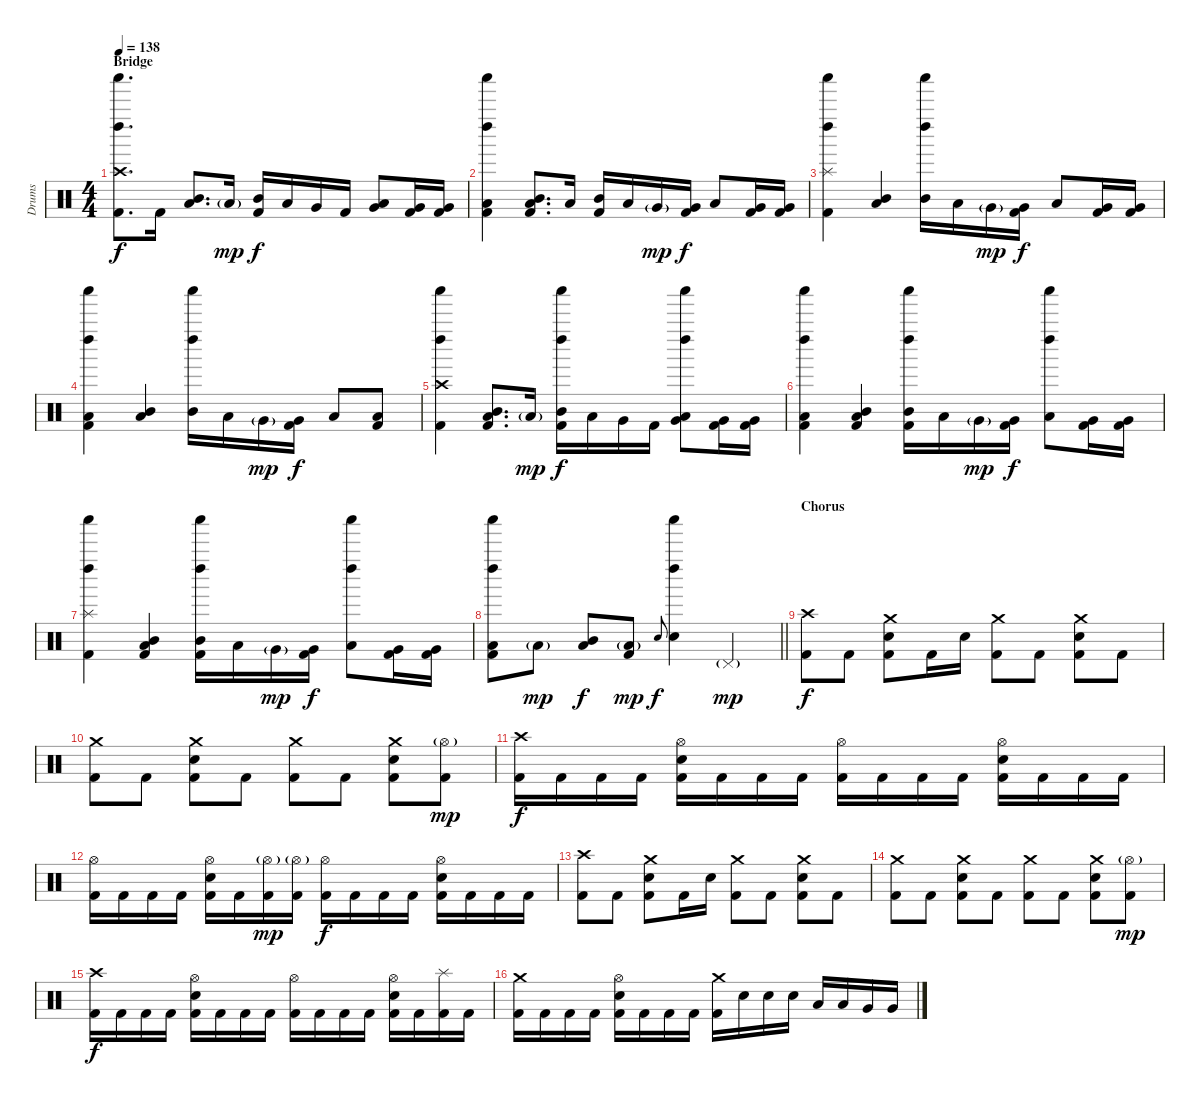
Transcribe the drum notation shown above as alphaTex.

\track ("Drums" "Drums") {instrument percussion}
\staff {score}
\articulation defaults
\ts (4 4)
\section ("" "Bridge")
\tempo 138
\clef neutral
\ks c
("Crash high (hit)" "Left Maraca (hit)" "Shaker (hit)" "Kick (hit) 2").8{d dy f} "Kick (hit) 2".16 ("Mid Tom (hit)" "Low Tom (hit)").8{d} "Low Tom (hit)"{g}.16{dy mp} ("Mid Tom (hit)" "Kick (hit) 2").16{dy f} "Low Tom (hit)".16 "Very Low Tom (hit)".16 "Kick (hit) 2".16 ("Low Tom (hit)" "Very Low Tom (hit)").8 ("Very Low Tom (hit)" "Kick (hit) 2").16 ("Very Low Tom (hit)" "Kick (hit) 2").16 |
("Low Floor Tom (hit)" "Left Maraca (hit)" "Shaker (hit)" "Kick (hit) 2").4 ("Mid Tom (hit)" "Low Tom (hit)" "Kick (hit) 2").8{d} "Low Tom (hit)".16 ("Mid Tom (hit)" "Kick (hit) 2").16 "Low Tom (hit)".16 "Very Low Tom (hit)"{g}.16{dy mp} ("Very Low Tom (hit)" "Kick (hit) 2").16{dy f} "Low Tom (hit)".8 ("Very Low Tom (hit)" "Kick (hit) 2").16 ("Very Low Tom (hit)" "Kick (hit) 2").16 |
("Splash (hit)" "Left Maraca (hit)" "Shaker (hit)" "Kick (hit) 2").4 ("Mid Tom (hit)" "Low Tom (hit)").4 ("Mid Tom (hit)" "Left Maraca (hit)" "Shaker (hit)").16 "Low Tom (hit)".16 "Very Low Tom (hit)"{g}.16{dy mp} ("Very Low Tom (hit)" "Kick (hit) 2").16{dy f} "Low Tom (hit)".8 ("Very Low Tom (hit)" "Kick (hit) 2").16 ("Very Low Tom (hit)" "Kick (hit) 2").16 |
("Low Floor Tom (hit)" "Left Maraca (hit)" "Shaker (hit)" "Kick (hit) 2").4 ("Mid Tom (hit)" "Low Tom (hit)").4 ("Mid Tom (hit)" "Left Maraca (hit)" "Shaker (hit)").16 "Low Tom (hit)".16 "Very Low Tom (hit)"{g}.16{dy mp} ("Very Low Tom (hit)" "Kick (hit) 2").16{dy f} "Low Tom (hit)".8 ("Low Floor Tom (hit)" "Kick (hit) 2").8 |
("Crash high (hit)" "Left Maraca (hit)" "Shaker (hit)" "Kick (hit) 2").4 ("Mid Tom (hit)" "Low Tom (hit)" "Kick (hit) 2").8{d} "Low Tom (hit)"{g}.16{dy mp} ("Mid Tom (hit)" "Left Maraca (hit)" "Shaker (hit)" "Kick (hit) 2").16{dy f} "Low Tom (hit)".16 "Very Low Tom (hit)".16 "Kick (hit) 2".16 ("Low Tom (hit)" "Very Low Tom (hit)" "Left Maraca (hit)" "Shaker (hit)").8 ("Very Low Tom (hit)" "Kick (hit) 2").16 ("Very Low Tom (hit)" "Kick (hit) 2").16 |
("Low Floor Tom (hit)" "Left Maraca (hit)" "Shaker (hit)" "Kick (hit) 2").4 ("Mid Tom (hit)" "Low Tom (hit)" "Kick (hit) 2").4 ("Mid Tom (hit)" "Left Maraca (hit)" "Shaker (hit)" "Kick (hit) 2").16 "Low Tom (hit)".16 "Very Low Tom (hit)"{g}.16{dy mp} ("Very Low Tom (hit)" "Kick (hit) 2").16{dy f} ("Low Tom (hit)" "Left Maraca (hit)" "Shaker (hit)").8 ("Very Low Tom (hit)" "Kick (hit) 2").16 ("Very Low Tom (hit)" "Kick (hit) 2").16 |
("Splash (hit)" "Left Maraca (hit)" "Shaker (hit)" "Kick (hit) 2").4 ("Mid Tom (hit)" "Low Tom (hit)" "Kick (hit) 2").4 ("Mid Tom (hit)" "Left Maraca (hit)" "Shaker (hit)" "Kick (hit) 2").16 "Low Tom (hit)".16 "Very Low Tom (hit)"{g}.16{dy mp} ("Very Low Tom (hit)" "Kick (hit) 2").16{dy f} ("Low Tom (hit)" "Left Maraca (hit)" "Shaker (hit)").8 ("Very Low Tom (hit)" "Kick (hit) 2").16 ("Very Low Tom (hit)" "Kick (hit) 2").16 |
\barLineRight lightlight
("Low Floor Tom (hit)" "Left Maraca (hit)" "Shaker (hit)" "Kick (hit) 2").8 "Low Floor Tom (hit)"{g}.8{dy mp} ("Mid Tom (hit)" "Low Tom (hit)").8{dy f} ("Low Floor Tom (hit)"{g} "Kick (hit) 2").8{dy mp} "Electric Snare (hit)".8{gr onbeat dy f} ("Electric Snare (hit)" "Left Maraca (hit)" "Shaker (hit)").4 "Pedal Hi-Hat (hit)"{g}.4{dy mp} |
\section ("" "Chorus")
("Crash high (hit)" "Kick (hit) 2").8{dy f} "Kick (hit) 2".8 ("Crash medium (hit)" "Electric Snare (hit)" "Kick (hit) 2").8 "Kick (hit) 2".16 "Electric Snare (hit)".16 ("Crash medium (hit)" "Kick (hit) 2").8 "Kick (hit) 2".8 ("Crash medium (hit)" "Electric Snare (hit)" "Kick (hit) 2").8 "Kick (hit) 2".8 |
("Crash medium (hit)" "Kick (hit) 2").8 "Kick (hit) 2".8 ("Crash medium (hit)" "Electric Snare (hit)" "Kick (hit) 2").8 "Kick (hit) 2".8 ("Crash medium (hit)" "Kick (hit) 2").8 "Kick (hit) 2".8 ("Crash medium (hit)" "Electric Snare (hit)" "Kick (hit) 2").8 ("Hi-Hat (open)"{g} "Kick (hit) 2").8{dy mp} |
("Crash high (hit)" "Kick (hit) 2").16{dy f} "Kick (hit) 2".16 "Kick (hit) 2".16 "Kick (hit) 2".16 ("Hi-Hat (open)" "Electric Snare (hit)" "Kick (hit) 2").16 "Kick (hit) 2".16 "Kick (hit) 2".16 "Kick (hit) 2".16 ("Hi-Hat (open)" "Kick (hit) 2").16 "Kick (hit) 2".16 "Kick (hit) 2".16 "Kick (hit) 2".16 ("Hi-Hat (open)" "Electric Snare (hit)" "Kick (hit) 2").16 "Kick (hit) 2".16 "Kick (hit) 2".16 "Kick (hit) 2".16 |
("Hi-Hat (open)" "Kick (hit) 2").16 "Kick (hit) 2".16 "Kick (hit) 2".16 "Kick (hit) 2".16 ("Hi-Hat (open)" "Electric Snare (hit)" "Kick (hit) 2").16 "Kick (hit) 2".16 ("Hi-Hat (open)"{g} "Kick (hit) 2").16{dy mp} ("Hi-Hat (open)"{g} "Kick (hit) 2").16 ("Hi-Hat (open)" "Kick (hit) 2").16{dy f} "Kick (hit) 2".16 "Kick (hit) 2".16 "Kick (hit) 2".16 ("Hi-Hat (open)" "Electric Snare (hit)" "Kick (hit) 2").16 "Kick (hit) 2".16 "Kick (hit) 2".16 "Kick (hit) 2".16 |
("Crash high (hit)" "Kick (hit) 2").8 "Kick (hit) 2".8 ("Crash medium (hit)" "Electric Snare (hit)" "Kick (hit) 2").8 "Kick (hit) 2".16 "Electric Snare (hit)".16 ("Crash medium (hit)" "Kick (hit) 2").8 "Kick (hit) 2".8 ("Crash medium (hit)" "Electric Snare (hit)" "Kick (hit) 2").8 "Kick (hit) 2".8 |
("Crash medium (hit)" "Kick (hit) 2").8 "Kick (hit) 2".8 ("Crash medium (hit)" "Electric Snare (hit)" "Kick (hit) 2").8 "Kick (hit) 2".8 ("Crash medium (hit)" "Kick (hit) 2").8 "Kick (hit) 2".8 ("Crash medium (hit)" "Electric Snare (hit)" "Kick (hit) 2").8 ("Hi-Hat (open)"{g} "Kick (hit) 2").8{dy mp} |
("Crash high (hit)" "Kick (hit) 2").16{dy f} "Kick (hit) 2".16 "Kick (hit) 2".16 "Kick (hit) 2".16 ("Hi-Hat (open)" "Electric Snare (hit)" "Kick (hit) 2").16 "Kick (hit) 2".16 "Kick (hit) 2".16 "Kick (hit) 2".16 ("Hi-Hat (open)" "Kick (hit) 2").16 "Kick (hit) 2".16 "Kick (hit) 2".16 "Kick (hit) 2".16 ("Hi-Hat (open)" "Electric Snare (hit)" "Kick (hit) 2").16 "Kick (hit) 2".16 ("Splash (hit)" "Kick (hit) 2").16 "Kick (hit) 2".16 |
("Crash medium (hit)" "Kick (hit) 2").16 "Kick (hit) 2".16 "Kick (hit) 2".16 "Kick (hit) 2".16 ("Hi-Hat (open)" "Electric Snare (hit)" "Kick (hit) 2").16 "Kick (hit) 2".16 "Kick (hit) 2".16 "Kick (hit) 2".16 ("Crash medium (hit)" "Kick (hit) 2").16 "Electric Snare (hit)".16 "Electric Snare (hit)".16 "Electric Snare (hit)".16 "Low Tom (hit)".16 "Low Tom (hit)".16 "Very Low Tom (hit)".16 "Very Low Tom (hit)".16
